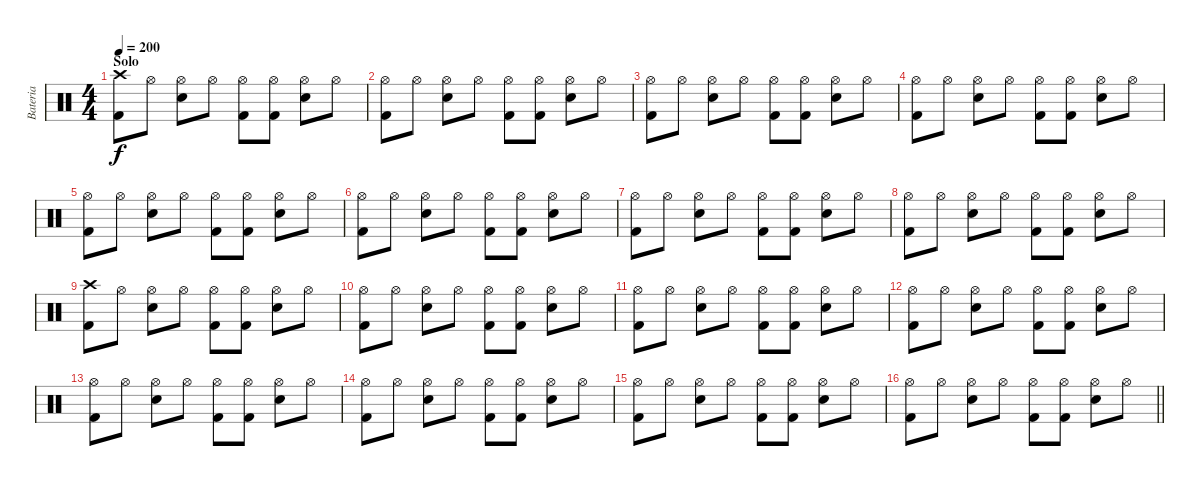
\track ("Bateria" "Bateria") {instrument percussion}
\staff {score}
\articulation defaults
\ts (4 4)
\section ("" "Solo")
\tempo 200
\clef neutral
\ks c
("Crash high (hit)" "Kick (hit) 2").8{dy f} "Hi-Hat (open)".8 ("Hi-Hat (open)" "Snare (hit) 2").8 "Hi-Hat (open)".8 ("Hi-Hat (open)" "Kick (hit) 2").8 ("Hi-Hat (open)" "Kick (hit) 2").8 ("Hi-Hat (open)" "Snare (hit) 2").8 "Hi-Hat (open)".8 |
("Hi-Hat (open)" "Kick (hit) 2").8 "Hi-Hat (open)".8 ("Hi-Hat (open)" "Snare (hit) 2").8 "Hi-Hat (open)".8 ("Hi-Hat (open)" "Kick (hit) 2").8 ("Hi-Hat (open)" "Kick (hit) 2").8 ("Hi-Hat (open)" "Snare (hit) 2").8 "Hi-Hat (open)".8 |
("Hi-Hat (open)" "Kick (hit) 2").8 "Hi-Hat (open)".8 ("Hi-Hat (open)" "Snare (hit) 2").8 "Hi-Hat (open)".8 ("Hi-Hat (open)" "Kick (hit) 2").8 ("Hi-Hat (open)" "Kick (hit) 2").8 ("Hi-Hat (open)" "Snare (hit) 2").8 "Hi-Hat (open)".8 |
("Hi-Hat (open)" "Kick (hit) 2").8 "Hi-Hat (open)".8 ("Hi-Hat (open)" "Snare (hit) 2").8 "Hi-Hat (open)".8 ("Hi-Hat (open)" "Kick (hit) 2").8 ("Hi-Hat (open)" "Kick (hit) 2").8 ("Hi-Hat (open)" "Snare (hit) 2").8 "Hi-Hat (open)".8 |
("Hi-Hat (open)" "Kick (hit) 2").8 "Hi-Hat (open)".8 ("Hi-Hat (open)" "Snare (hit) 2").8 "Hi-Hat (open)".8 ("Hi-Hat (open)" "Kick (hit) 2").8 ("Hi-Hat (open)" "Kick (hit) 2").8 ("Hi-Hat (open)" "Snare (hit) 2").8 "Hi-Hat (open)".8 |
("Hi-Hat (open)" "Kick (hit) 2").8 "Hi-Hat (open)".8 ("Hi-Hat (open)" "Snare (hit) 2").8 "Hi-Hat (open)".8 ("Hi-Hat (open)" "Kick (hit) 2").8 ("Hi-Hat (open)" "Kick (hit) 2").8 ("Hi-Hat (open)" "Snare (hit) 2").8 "Hi-Hat (open)".8 |
("Hi-Hat (open)" "Kick (hit) 2").8 "Hi-Hat (open)".8 ("Hi-Hat (open)" "Snare (hit) 2").8 "Hi-Hat (open)".8 ("Hi-Hat (open)" "Kick (hit) 2").8 ("Hi-Hat (open)" "Kick (hit) 2").8 ("Hi-Hat (open)" "Snare (hit) 2").8 "Hi-Hat (open)".8 |
("Hi-Hat (open)" "Kick (hit) 2").8 "Hi-Hat (open)".8 ("Hi-Hat (open)" "Snare (hit) 2").8 "Hi-Hat (open)".8 ("Hi-Hat (open)" "Kick (hit) 2").8 ("Hi-Hat (open)" "Kick (hit) 2").8 ("Hi-Hat (open)" "Snare (hit) 2").8 "Hi-Hat (open)".8 |
("Crash high (hit)" "Kick (hit) 2").8 "Hi-Hat (open)".8 ("Hi-Hat (open)" "Snare (hit) 2").8 "Hi-Hat (open)".8 ("Hi-Hat (open)" "Kick (hit) 2").8 ("Hi-Hat (open)" "Kick (hit) 2").8 ("Hi-Hat (open)" "Snare (hit) 2").8 "Hi-Hat (open)".8 |
("Hi-Hat (open)" "Kick (hit) 2").8 "Hi-Hat (open)".8 ("Hi-Hat (open)" "Snare (hit) 2").8 "Hi-Hat (open)".8 ("Hi-Hat (open)" "Kick (hit) 2").8 ("Hi-Hat (open)" "Kick (hit) 2").8 ("Hi-Hat (open)" "Snare (hit) 2").8 "Hi-Hat (open)".8 |
("Hi-Hat (open)" "Kick (hit) 2").8 "Hi-Hat (open)".8 ("Hi-Hat (open)" "Snare (hit) 2").8 "Hi-Hat (open)".8 ("Hi-Hat (open)" "Kick (hit) 2").8 ("Hi-Hat (open)" "Kick (hit) 2").8 ("Hi-Hat (open)" "Snare (hit) 2").8 "Hi-Hat (open)".8 |
("Hi-Hat (open)" "Kick (hit) 2").8 "Hi-Hat (open)".8 ("Hi-Hat (open)" "Snare (hit) 2").8 "Hi-Hat (open)".8 ("Hi-Hat (open)" "Kick (hit) 2").8 ("Hi-Hat (open)" "Kick (hit) 2").8 ("Hi-Hat (open)" "Snare (hit) 2").8 "Hi-Hat (open)".8 |
("Hi-Hat (open)" "Kick (hit) 2").8 "Hi-Hat (open)".8 ("Hi-Hat (open)" "Snare (hit) 2").8 "Hi-Hat (open)".8 ("Hi-Hat (open)" "Kick (hit) 2").8 ("Hi-Hat (open)" "Kick (hit) 2").8 ("Hi-Hat (open)" "Snare (hit) 2").8 "Hi-Hat (open)".8 |
("Hi-Hat (open)" "Kick (hit) 2").8 "Hi-Hat (open)".8 ("Hi-Hat (open)" "Snare (hit) 2").8 "Hi-Hat (open)".8 ("Hi-Hat (open)" "Kick (hit) 2").8 ("Hi-Hat (open)" "Kick (hit) 2").8 ("Hi-Hat (open)" "Snare (hit) 2").8 "Hi-Hat (open)".8 |
("Hi-Hat (open)" "Kick (hit) 2").8 "Hi-Hat (open)".8 ("Hi-Hat (open)" "Snare (hit) 2").8 "Hi-Hat (open)".8 ("Hi-Hat (open)" "Kick (hit) 2").8 ("Hi-Hat (open)" "Kick (hit) 2").8 ("Hi-Hat (open)" "Snare (hit) 2").8 "Hi-Hat (open)".8 |
\barLineRight lightlight
("Hi-Hat (open)" "Kick (hit) 2").8 "Hi-Hat (open)".8 ("Hi-Hat (open)" "Snare (hit) 2").8 "Hi-Hat (open)".8 ("Hi-Hat (open)" "Kick (hit) 2").8 ("Hi-Hat (open)" "Kick (hit) 2").8 ("Hi-Hat (open)" "Snare (hit) 2").8 "Hi-Hat (open)".8
